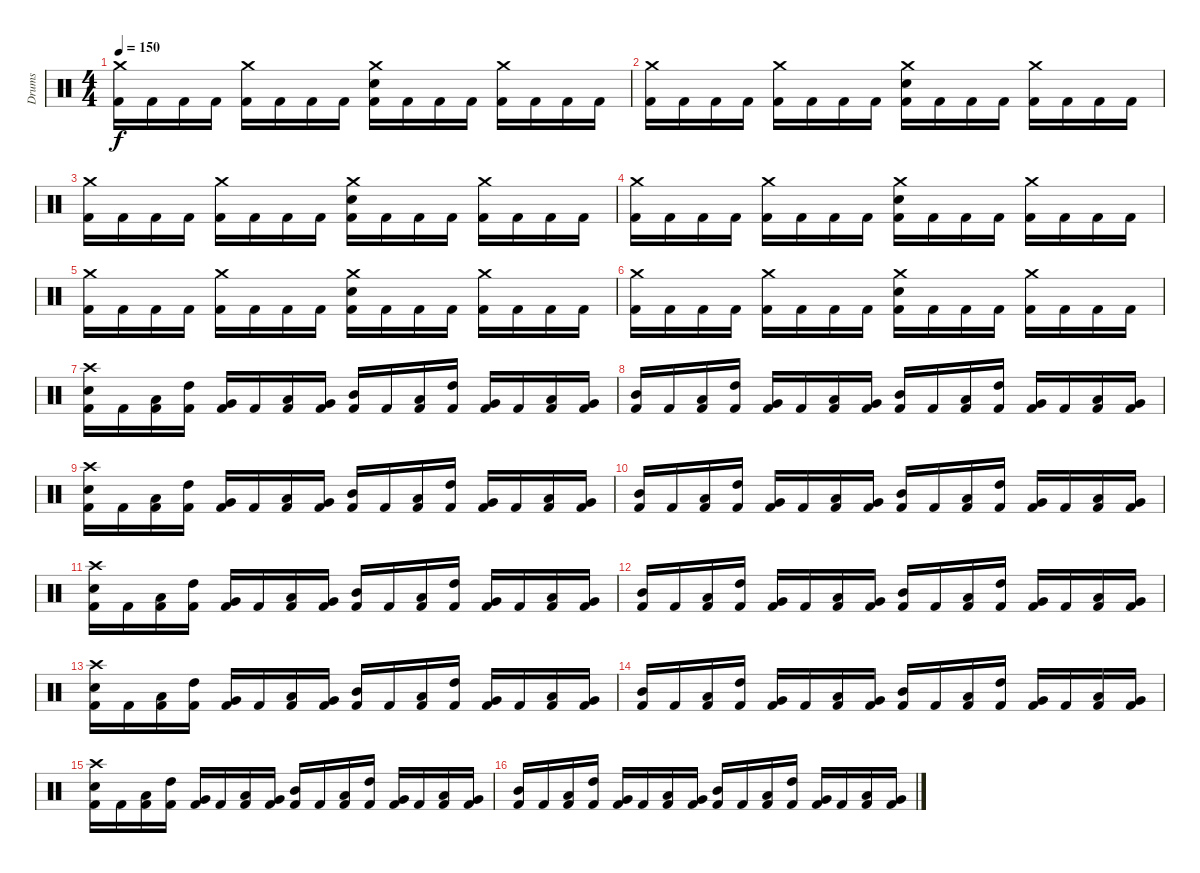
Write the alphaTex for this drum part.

\track ("Drums" "Drums") {instrument percussion}
\staff {score}
\articulation defaults
\ts (4 4)
\tempo 150
\clef neutral
\ks c
("Crash medium (hit)" "Kick (hit) 2").16{dy f} "Kick (hit) 2".16 "Kick (hit) 2".16 "Kick (hit) 2".16 ("Crash medium (hit)" "Kick (hit) 2").16 "Kick (hit) 2".16 "Kick (hit) 2".16 "Kick (hit) 2".16 ("Crash medium (hit)" "Snare (hit) 2" "Kick (hit) 2").16 "Kick (hit) 2".16 "Kick (hit) 2".16 "Kick (hit) 2".16 ("Crash medium (hit)" "Kick (hit) 2").16 "Kick (hit) 2".16 "Kick (hit) 2".16 "Kick (hit) 2".16 |
("Crash medium (hit)" "Kick (hit) 2").16 "Kick (hit) 2".16 "Kick (hit) 2".16 "Kick (hit) 2".16 ("Crash medium (hit)" "Kick (hit) 2").16 "Kick (hit) 2".16 "Kick (hit) 2".16 "Kick (hit) 2".16 ("Crash medium (hit)" "Snare (hit) 2" "Kick (hit) 2").16 "Kick (hit) 2".16 "Kick (hit) 2".16 "Kick (hit) 2".16 ("Crash medium (hit)" "Kick (hit) 2").16 "Kick (hit) 2".16 "Kick (hit) 2".16 "Kick (hit) 2".16 |
("Crash medium (hit)" "Kick (hit) 2").16 "Kick (hit) 2".16 "Kick (hit) 2".16 "Kick (hit) 2".16 ("Crash medium (hit)" "Kick (hit) 2").16 "Kick (hit) 2".16 "Kick (hit) 2".16 "Kick (hit) 2".16 ("Crash medium (hit)" "Snare (hit) 2" "Kick (hit) 2").16 "Kick (hit) 2".16 "Kick (hit) 2".16 "Kick (hit) 2".16 ("Crash medium (hit)" "Kick (hit) 2").16 "Kick (hit) 2".16 "Kick (hit) 2".16 "Kick (hit) 2".16 |
("Crash medium (hit)" "Kick (hit) 2").16 "Kick (hit) 2".16 "Kick (hit) 2".16 "Kick (hit) 2".16 ("Crash medium (hit)" "Kick (hit) 2").16 "Kick (hit) 2".16 "Kick (hit) 2".16 "Kick (hit) 2".16 ("Crash medium (hit)" "Snare (hit) 2" "Kick (hit) 2").16 "Kick (hit) 2".16 "Kick (hit) 2".16 "Kick (hit) 2".16 ("Crash medium (hit)" "Kick (hit) 2").16 "Kick (hit) 2".16 "Kick (hit) 2".16 "Kick (hit) 2".16 |
("Crash medium (hit)" "Kick (hit) 2").16 "Kick (hit) 2".16 "Kick (hit) 2".16 "Kick (hit) 2".16 ("Crash medium (hit)" "Kick (hit) 2").16 "Kick (hit) 2".16 "Kick (hit) 2".16 "Kick (hit) 2".16 ("Crash medium (hit)" "Snare (hit) 2" "Kick (hit) 2").16 "Kick (hit) 2".16 "Kick (hit) 2".16 "Kick (hit) 2".16 ("Crash medium (hit)" "Kick (hit) 2").16 "Kick (hit) 2".16 "Kick (hit) 2".16 "Kick (hit) 2".16 |
("Crash medium (hit)" "Kick (hit) 2").16 "Kick (hit) 2".16 "Kick (hit) 2".16 "Kick (hit) 2".16 ("Crash medium (hit)" "Kick (hit) 2").16 "Kick (hit) 2".16 "Kick (hit) 2".16 "Kick (hit) 2".16 ("Crash medium (hit)" "Snare (hit) 2" "Kick (hit) 2").16 "Kick (hit) 2".16 "Kick (hit) 2".16 "Kick (hit) 2".16 ("Crash medium (hit)" "Kick (hit) 2").16 "Kick (hit) 2".16 "Kick (hit) 2".16 "Kick (hit) 2".16 |
("Crash high (hit)" "Snare (hit) 2" "Kick (hit) 2").16 "Kick (hit) 2".16 ("Low Tom (hit)" "Kick (hit) 2").16 ("High Tom (hit)" "Kick (hit) 2").16 ("Very Low Tom (hit)" "Kick (hit) 2").16 "Kick (hit) 2".16 ("Low Tom (hit)" "Kick (hit) 2").16 ("Very Low Tom (hit)" "Kick (hit) 2").16 ("Mid Tom (hit)" "Kick (hit) 2").16 "Kick (hit) 2".16 ("Low Tom (hit)" "Kick (hit) 2").16 ("High Tom (hit)" "Kick (hit) 2").16 ("Very Low Tom (hit)" "Kick (hit) 2").16 "Kick (hit) 2".16 ("Low Tom (hit)" "Kick (hit) 2").16 ("Very Low Tom (hit)" "Kick (hit) 2").16 |
("Mid Tom (hit)" "Kick (hit) 2").16 "Kick (hit) 2".16 ("Low Tom (hit)" "Kick (hit) 2").16 ("High Tom (hit)" "Kick (hit) 2").16 ("Very Low Tom (hit)" "Kick (hit) 2").16 "Kick (hit) 2".16 ("Low Tom (hit)" "Kick (hit) 2").16 ("Very Low Tom (hit)" "Kick (hit) 2").16 ("Mid Tom (hit)" "Kick (hit) 2").16 "Kick (hit) 2".16 ("Low Tom (hit)" "Kick (hit) 2").16 ("High Tom (hit)" "Kick (hit) 2").16 ("Very Low Tom (hit)" "Kick (hit) 2").16 "Kick (hit) 2".16 ("Low Tom (hit)" "Kick (hit) 2").16 ("Very Low Tom (hit)" "Kick (hit) 2").16 |
("Crash high (hit)" "Snare (hit) 2" "Kick (hit) 2").16 "Kick (hit) 2".16 ("Low Tom (hit)" "Kick (hit) 2").16 ("High Tom (hit)" "Kick (hit) 2").16 ("Very Low Tom (hit)" "Kick (hit) 2").16 "Kick (hit) 2".16 ("Low Tom (hit)" "Kick (hit) 2").16 ("Very Low Tom (hit)" "Kick (hit) 2").16 ("Mid Tom (hit)" "Kick (hit) 2").16 "Kick (hit) 2".16 ("Low Tom (hit)" "Kick (hit) 2").16 ("High Tom (hit)" "Kick (hit) 2").16 ("Very Low Tom (hit)" "Kick (hit) 2").16 "Kick (hit) 2".16 ("Low Tom (hit)" "Kick (hit) 2").16 ("Very Low Tom (hit)" "Kick (hit) 2").16 |
("Mid Tom (hit)" "Kick (hit) 2").16 "Kick (hit) 2".16 ("Low Tom (hit)" "Kick (hit) 2").16 ("High Tom (hit)" "Kick (hit) 2").16 ("Very Low Tom (hit)" "Kick (hit) 2").16 "Kick (hit) 2".16 ("Low Tom (hit)" "Kick (hit) 2").16 ("Very Low Tom (hit)" "Kick (hit) 2").16 ("Mid Tom (hit)" "Kick (hit) 2").16 "Kick (hit) 2".16 ("Low Tom (hit)" "Kick (hit) 2").16 ("High Tom (hit)" "Kick (hit) 2").16 ("Very Low Tom (hit)" "Kick (hit) 2").16 "Kick (hit) 2".16 ("Low Tom (hit)" "Kick (hit) 2").16 ("Very Low Tom (hit)" "Kick (hit) 2").16 |
("Crash high (hit)" "Snare (hit) 2" "Kick (hit) 2").16 "Kick (hit) 2".16 ("Low Tom (hit)" "Kick (hit) 2").16 ("High Tom (hit)" "Kick (hit) 2").16 ("Very Low Tom (hit)" "Kick (hit) 2").16 "Kick (hit) 2".16 ("Low Tom (hit)" "Kick (hit) 2").16 ("Very Low Tom (hit)" "Kick (hit) 2").16 ("Mid Tom (hit)" "Kick (hit) 2").16 "Kick (hit) 2".16 ("Low Tom (hit)" "Kick (hit) 2").16 ("High Tom (hit)" "Kick (hit) 2").16 ("Very Low Tom (hit)" "Kick (hit) 2").16 "Kick (hit) 2".16 ("Low Tom (hit)" "Kick (hit) 2").16 ("Very Low Tom (hit)" "Kick (hit) 2").16 |
("Mid Tom (hit)" "Kick (hit) 2").16 "Kick (hit) 2".16 ("Low Tom (hit)" "Kick (hit) 2").16 ("High Tom (hit)" "Kick (hit) 2").16 ("Very Low Tom (hit)" "Kick (hit) 2").16 "Kick (hit) 2".16 ("Low Tom (hit)" "Kick (hit) 2").16 ("Very Low Tom (hit)" "Kick (hit) 2").16 ("Mid Tom (hit)" "Kick (hit) 2").16 "Kick (hit) 2".16 ("Low Tom (hit)" "Kick (hit) 2").16 ("High Tom (hit)" "Kick (hit) 2").16 ("Very Low Tom (hit)" "Kick (hit) 2").16 "Kick (hit) 2".16 ("Low Tom (hit)" "Kick (hit) 2").16 ("Very Low Tom (hit)" "Kick (hit) 2").16 |
("Crash high (hit)" "Snare (hit) 2" "Kick (hit) 2").16 "Kick (hit) 2".16 ("Low Tom (hit)" "Kick (hit) 2").16 ("High Tom (hit)" "Kick (hit) 2").16 ("Very Low Tom (hit)" "Kick (hit) 2").16 "Kick (hit) 2".16 ("Low Tom (hit)" "Kick (hit) 2").16 ("Very Low Tom (hit)" "Kick (hit) 2").16 ("Mid Tom (hit)" "Kick (hit) 2").16 "Kick (hit) 2".16 ("Low Tom (hit)" "Kick (hit) 2").16 ("High Tom (hit)" "Kick (hit) 2").16 ("Very Low Tom (hit)" "Kick (hit) 2").16 "Kick (hit) 2".16 ("Low Tom (hit)" "Kick (hit) 2").16 ("Very Low Tom (hit)" "Kick (hit) 2").16 |
("Mid Tom (hit)" "Kick (hit) 2").16 "Kick (hit) 2".16 ("Low Tom (hit)" "Kick (hit) 2").16 ("High Tom (hit)" "Kick (hit) 2").16 ("Very Low Tom (hit)" "Kick (hit) 2").16 "Kick (hit) 2".16 ("Low Tom (hit)" "Kick (hit) 2").16 ("Very Low Tom (hit)" "Kick (hit) 2").16 ("Mid Tom (hit)" "Kick (hit) 2").16 "Kick (hit) 2".16 ("Low Tom (hit)" "Kick (hit) 2").16 ("High Tom (hit)" "Kick (hit) 2").16 ("Very Low Tom (hit)" "Kick (hit) 2").16 "Kick (hit) 2".16 ("Low Tom (hit)" "Kick (hit) 2").16 ("Very Low Tom (hit)" "Kick (hit) 2").16 |
("Crash high (hit)" "Snare (hit) 2" "Kick (hit) 2").16 "Kick (hit) 2".16 ("Low Tom (hit)" "Kick (hit) 2").16 ("High Tom (hit)" "Kick (hit) 2").16 ("Very Low Tom (hit)" "Kick (hit) 2").16 "Kick (hit) 2".16 ("Low Tom (hit)" "Kick (hit) 2").16 ("Very Low Tom (hit)" "Kick (hit) 2").16 ("Mid Tom (hit)" "Kick (hit) 2").16 "Kick (hit) 2".16 ("Low Tom (hit)" "Kick (hit) 2").16 ("High Tom (hit)" "Kick (hit) 2").16 ("Very Low Tom (hit)" "Kick (hit) 2").16 "Kick (hit) 2".16 ("Low Tom (hit)" "Kick (hit) 2").16 ("Very Low Tom (hit)" "Kick (hit) 2").16 |
("Mid Tom (hit)" "Kick (hit) 2").16 "Kick (hit) 2".16 ("Low Tom (hit)" "Kick (hit) 2").16 ("High Tom (hit)" "Kick (hit) 2").16 ("Very Low Tom (hit)" "Kick (hit) 2").16 "Kick (hit) 2".16 ("Low Tom (hit)" "Kick (hit) 2").16 ("Very Low Tom (hit)" "Kick (hit) 2").16 ("Mid Tom (hit)" "Kick (hit) 2").16 "Kick (hit) 2".16 ("Low Tom (hit)" "Kick (hit) 2").16 ("High Tom (hit)" "Kick (hit) 2").16 ("Very Low Tom (hit)" "Kick (hit) 2").16 "Kick (hit) 2".16 ("Low Tom (hit)" "Kick (hit) 2").16 ("Very Low Tom (hit)" "Kick (hit) 2").16
